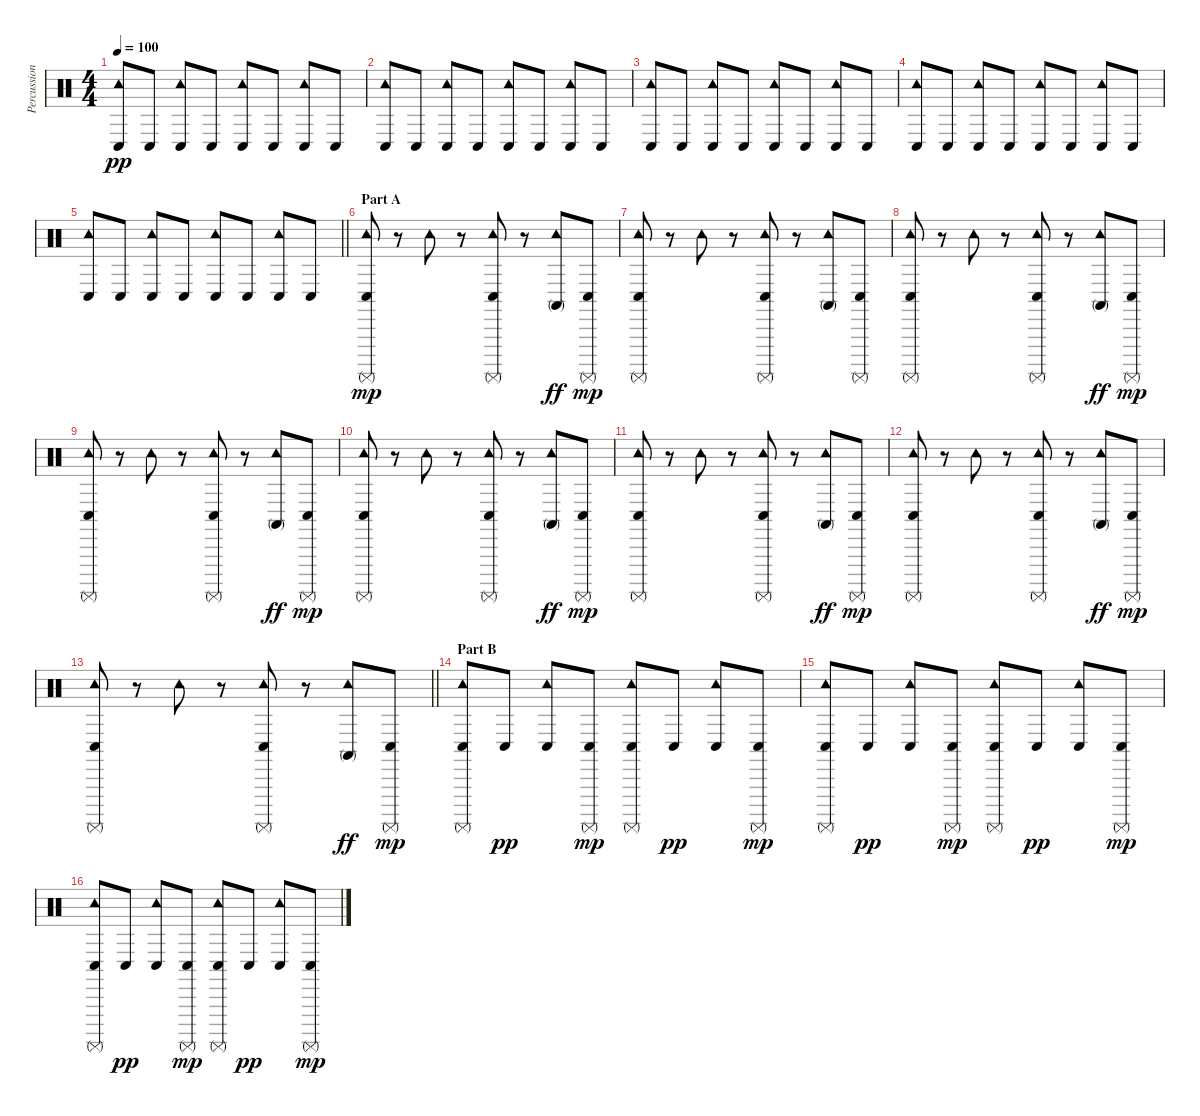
\track ("Percussion" "Percussion") {instrument percussion}
\staff {score}
\articulation defaults
\ts (4 4)
\tempo 100
\clef neutral
\ks c
("Tambourine (hit)" "Conga low (hit)").8{dy pp} "Conga low (hit)".8 ("Tambourine (hit)" "Conga low (hit)").8 "Conga low (hit)".8 ("Tambourine (hit)" "Conga low (hit)").8 "Conga low (hit)".8 ("Tambourine (hit)" "Conga low (hit)").8 "Conga low (hit)".8 |
("Tambourine (hit)" "Conga low (hit)").8 "Conga low (hit)".8 ("Tambourine (hit)" "Conga low (hit)").8 "Conga low (hit)".8 ("Tambourine (hit)" "Conga low (hit)").8 "Conga low (hit)".8 ("Tambourine (hit)" "Conga low (hit)").8 "Conga low (hit)".8 |
("Tambourine (hit)" "Conga low (hit)").8 "Conga low (hit)".8 ("Tambourine (hit)" "Conga low (hit)").8 "Conga low (hit)".8 ("Tambourine (hit)" "Conga low (hit)").8 "Conga low (hit)".8 ("Tambourine (hit)" "Conga low (hit)").8 "Conga low (hit)".8 |
("Tambourine (hit)" "Conga low (hit)").8 "Conga low (hit)".8 ("Tambourine (hit)" "Conga low (hit)").8 "Conga low (hit)".8 ("Tambourine (hit)" "Conga low (hit)").8 "Conga low (hit)".8 ("Tambourine (hit)" "Conga low (hit)").8 "Conga low (hit)".8 |
\barLineRight lightlight
("Tambourine (hit)" "Conga low (hit)").8 "Conga low (hit)".8 ("Tambourine (hit)" "Conga low (hit)").8 "Conga low (hit)".8 ("Tambourine (hit)" "Conga low (hit)").8 "Conga low (hit)".8 ("Tambourine (hit)" "Conga low (hit)").8 "Conga low (hit)".8 |
\section ("" "Part A")
("Tambourine (hit)" "Conga low (hit)" "Surdo (mute)").8{dy mp} r.8 "Tambourine (hit)".8 r.8 ("Tambourine (hit)" "Conga low (hit)" "Surdo (mute)").8 r.8 ("Tambourine (hit)" "Conga high (mute)").8{dy ff} ("Conga low (hit)" "Surdo (mute)").8{dy mp} |
("Tambourine (hit)" "Conga low (hit)" "Surdo (mute)").8 r.8 "Tambourine (hit)".8 r.8 ("Tambourine (hit)" "Conga low (hit)" "Surdo (mute)").8 r.8 ("Tambourine (hit)" "Conga high (mute)").8 ("Conga low (hit)" "Surdo (mute)").8 |
("Tambourine (hit)" "Conga low (hit)" "Surdo (mute)").8 r.8 "Tambourine (hit)".8 r.8 ("Tambourine (hit)" "Conga low (hit)" "Surdo (mute)").8 r.8 ("Tambourine (hit)" "Conga high (mute)").8{dy ff} ("Conga low (hit)" "Surdo (mute)").8{dy mp} |
("Tambourine (hit)" "Conga low (hit)" "Surdo (mute)").8 r.8 "Tambourine (hit)".8 r.8 ("Tambourine (hit)" "Conga low (hit)" "Surdo (mute)").8 r.8 ("Tambourine (hit)" "Conga high (mute)").8{dy ff} ("Conga low (hit)" "Surdo (mute)").8{dy mp} |
("Tambourine (hit)" "Conga low (hit)" "Surdo (mute)").8 r.8 "Tambourine (hit)".8 r.8 ("Tambourine (hit)" "Conga low (hit)" "Surdo (mute)").8 r.8 ("Tambourine (hit)" "Conga high (mute)").8{dy ff} ("Conga low (hit)" "Surdo (mute)").8{dy mp} |
("Tambourine (hit)" "Conga low (hit)" "Surdo (mute)").8 r.8 "Tambourine (hit)".8 r.8 ("Tambourine (hit)" "Conga low (hit)" "Surdo (mute)").8 r.8 ("Tambourine (hit)" "Conga high (mute)").8{dy ff} ("Conga low (hit)" "Surdo (mute)").8{dy mp} |
("Tambourine (hit)" "Conga low (hit)" "Surdo (mute)").8 r.8 "Tambourine (hit)".8 r.8 ("Tambourine (hit)" "Conga low (hit)" "Surdo (mute)").8 r.8 ("Tambourine (hit)" "Conga high (mute)").8{dy ff} ("Conga low (hit)" "Surdo (mute)").8{dy mp} |
\barLineRight lightlight
("Tambourine (hit)" "Conga low (hit)" "Surdo (mute)").8 r.8 "Tambourine (hit)".8 r.8 ("Tambourine (hit)" "Conga low (hit)" "Surdo (mute)").8 r.8 ("Tambourine (hit)" "Conga high (mute)").8{dy ff} ("Conga low (hit)" "Surdo (mute)").8{dy mp} |
\section ("" "Part B")
("Tambourine (hit)" "Conga low (hit)" "Surdo (mute)").8 "Conga low (hit)".8{dy pp} ("Tambourine (hit)" "Conga low (hit)").8 ("Conga low (hit)" "Surdo (mute)").8{dy mp} ("Tambourine (hit)" "Conga low (hit)" "Surdo (mute)").8 "Conga low (hit)".8{dy pp} ("Tambourine (hit)" "Conga low (hit)").8 ("Conga low (hit)" "Surdo (mute)").8{dy mp} |
("Tambourine (hit)" "Conga low (hit)" "Surdo (mute)").8 "Conga low (hit)".8{dy pp} ("Tambourine (hit)" "Conga low (hit)").8 ("Conga low (hit)" "Surdo (mute)").8{dy mp} ("Tambourine (hit)" "Conga low (hit)" "Surdo (mute)").8 "Conga low (hit)".8{dy pp} ("Tambourine (hit)" "Conga low (hit)").8 ("Conga low (hit)" "Surdo (mute)").8{dy mp} |
("Tambourine (hit)" "Conga low (hit)" "Surdo (mute)").8 "Conga low (hit)".8{dy pp} ("Tambourine (hit)" "Conga low (hit)").8 ("Conga low (hit)" "Surdo (mute)").8{dy mp} ("Tambourine (hit)" "Conga low (hit)" "Surdo (mute)").8 "Conga low (hit)".8{dy pp} ("Tambourine (hit)" "Conga low (hit)").8 ("Conga low (hit)" "Surdo (mute)").8{dy mp}
